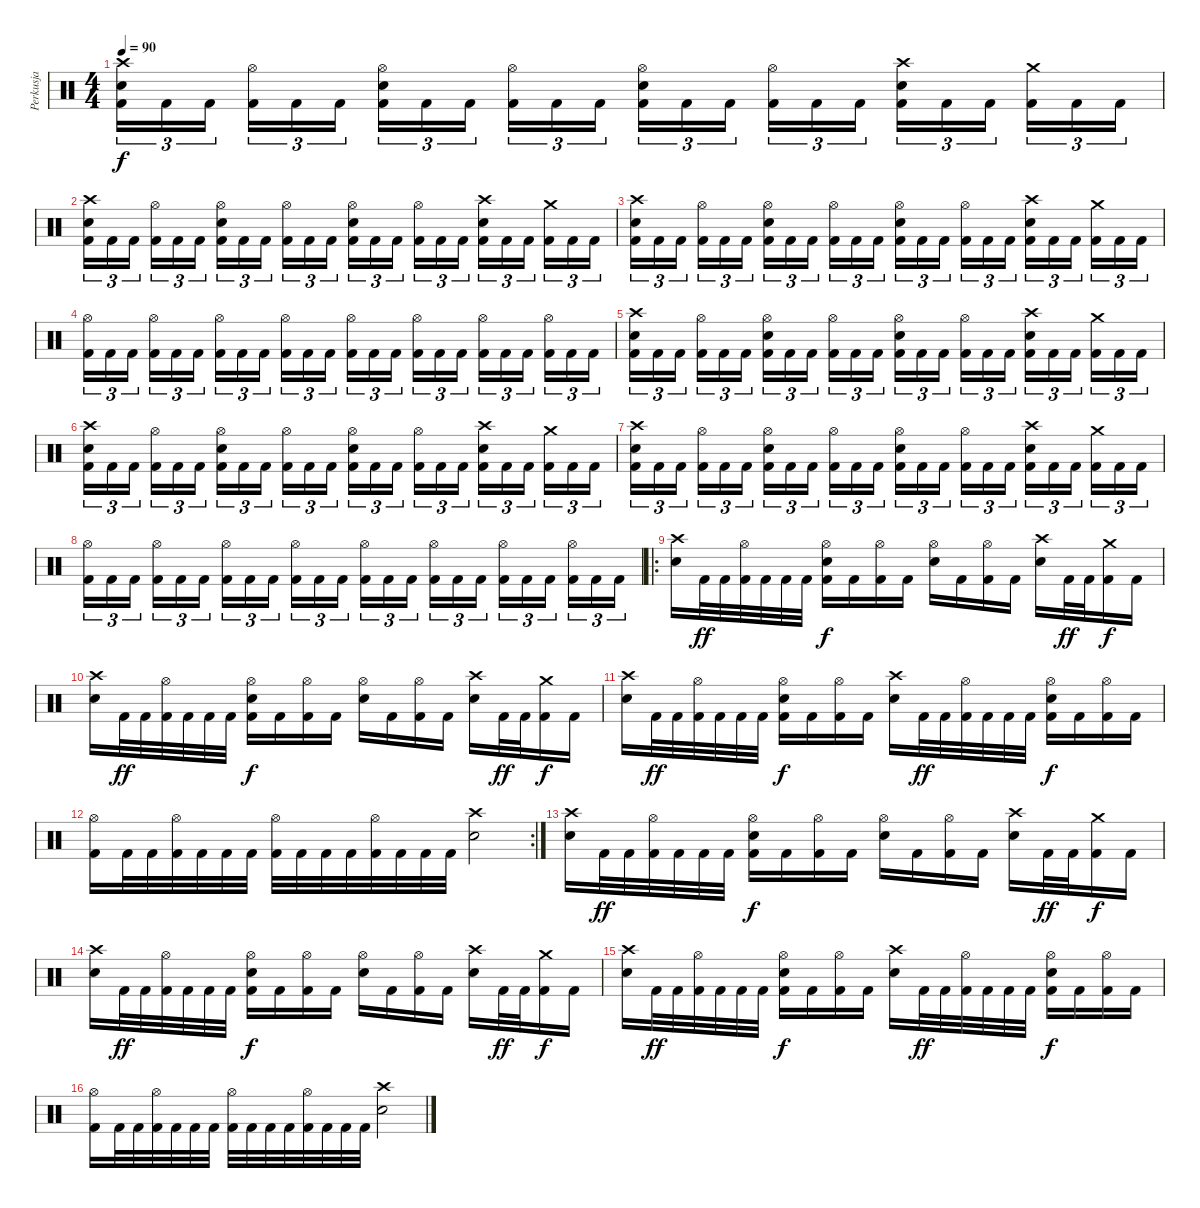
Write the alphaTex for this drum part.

\track ("Perkusja" "Perkusja") {instrument percussion}
\staff {score}
\articulation defaults
\ts (4 4)
\tempo 90
\clef neutral
\ks c
("Kick (hit) 2" "Electric Snare (hit)" "Crash high (hit)").16{tu (3 2) dy f} "Kick (hit) 2".16{tu (3 2)} "Kick (hit) 2".16{tu (3 2)} ("Kick (hit) 2" "Hi-Hat (open)").16{tu (3 2)} "Kick (hit) 2".16{tu (3 2)} "Kick (hit) 2".16{tu (3 2)} ("Kick (hit) 2" "Electric Snare (hit)" "Hi-Hat (open)").16{tu (3 2)} "Kick (hit) 2".16{tu (3 2)} "Kick (hit) 2".16{tu (3 2)} ("Kick (hit) 2" "Hi-Hat (open)").16{tu (3 2)} "Kick (hit) 2".16{tu (3 2)} "Kick (hit) 2".16{tu (3 2)} ("Kick (hit) 2" "Electric Snare (hit)" "Hi-Hat (open)").16{tu (3 2)} "Kick (hit) 2".16{tu (3 2)} "Kick (hit) 2".16{tu (3 2)} ("Kick (hit) 2" "Hi-Hat (open)").16{tu (3 2)} "Kick (hit) 2".16{tu (3 2)} "Kick (hit) 2".16{tu (3 2)} ("Kick (hit) 2" "Electric Snare (hit)" "Crash high (hit)").16{tu (3 2)} "Kick (hit) 2".16{tu (3 2)} "Kick (hit) 2".16{tu (3 2)} ("Kick (hit) 2" "Crash medium (hit)").16{tu (3 2)} "Kick (hit) 2".16{tu (3 2)} "Kick (hit) 2".16{tu (3 2)} |
("Kick (hit) 2" "Electric Snare (hit)" "Crash high (hit)").16{tu (3 2)} "Kick (hit) 2".16{tu (3 2)} "Kick (hit) 2".16{tu (3 2)} ("Kick (hit) 2" "Hi-Hat (open)").16{tu (3 2)} "Kick (hit) 2".16{tu (3 2)} "Kick (hit) 2".16{tu (3 2)} ("Kick (hit) 2" "Electric Snare (hit)" "Hi-Hat (open)").16{tu (3 2)} "Kick (hit) 2".16{tu (3 2)} "Kick (hit) 2".16{tu (3 2)} ("Kick (hit) 2" "Hi-Hat (open)").16{tu (3 2)} "Kick (hit) 2".16{tu (3 2)} "Kick (hit) 2".16{tu (3 2)} ("Kick (hit) 2" "Electric Snare (hit)" "Hi-Hat (open)").16{tu (3 2)} "Kick (hit) 2".16{tu (3 2)} "Kick (hit) 2".16{tu (3 2)} ("Kick (hit) 2" "Hi-Hat (open)").16{tu (3 2)} "Kick (hit) 2".16{tu (3 2)} "Kick (hit) 2".16{tu (3 2)} ("Kick (hit) 2" "Electric Snare (hit)" "Crash high (hit)").16{tu (3 2)} "Kick (hit) 2".16{tu (3 2)} "Kick (hit) 2".16{tu (3 2)} ("Kick (hit) 2" "Crash medium (hit)").16{tu (3 2)} "Kick (hit) 2".16{tu (3 2)} "Kick (hit) 2".16{tu (3 2)} |
("Kick (hit) 2" "Electric Snare (hit)" "Crash high (hit)").16{tu (3 2)} "Kick (hit) 2".16{tu (3 2)} "Kick (hit) 2".16{tu (3 2)} ("Kick (hit) 2" "Hi-Hat (open)").16{tu (3 2)} "Kick (hit) 2".16{tu (3 2)} "Kick (hit) 2".16{tu (3 2)} ("Kick (hit) 2" "Electric Snare (hit)" "Hi-Hat (open)").16{tu (3 2)} "Kick (hit) 2".16{tu (3 2)} "Kick (hit) 2".16{tu (3 2)} ("Kick (hit) 2" "Hi-Hat (open)").16{tu (3 2)} "Kick (hit) 2".16{tu (3 2)} "Kick (hit) 2".16{tu (3 2)} ("Kick (hit) 2" "Electric Snare (hit)" "Hi-Hat (open)").16{tu (3 2)} "Kick (hit) 2".16{tu (3 2)} "Kick (hit) 2".16{tu (3 2)} ("Kick (hit) 2" "Hi-Hat (open)").16{tu (3 2)} "Kick (hit) 2".16{tu (3 2)} "Kick (hit) 2".16{tu (3 2)} ("Kick (hit) 2" "Electric Snare (hit)" "Crash high (hit)").16{tu (3 2)} "Kick (hit) 2".16{tu (3 2)} "Kick (hit) 2".16{tu (3 2)} ("Kick (hit) 2" "Crash medium (hit)").16{tu (3 2)} "Kick (hit) 2".16{tu (3 2)} "Kick (hit) 2".16{tu (3 2)} |
("Kick (hit) 2" "Hi-Hat (open)").16{tu (3 2)} "Kick (hit) 2".16{tu (3 2)} "Kick (hit) 2".16{tu (3 2)} ("Kick (hit) 2" "Hi-Hat (open)").16{tu (3 2)} "Kick (hit) 2".16{tu (3 2)} "Kick (hit) 2".16{tu (3 2)} ("Kick (hit) 2" "Hi-Hat (open)").16{tu (3 2)} "Kick (hit) 2".16{tu (3 2)} "Kick (hit) 2".16{tu (3 2)} ("Kick (hit) 2" "Hi-Hat (open)").16{tu (3 2)} "Kick (hit) 2".16{tu (3 2)} "Kick (hit) 2".16{tu (3 2)} ("Kick (hit) 2" "Hi-Hat (open)").16{tu (3 2)} "Kick (hit) 2".16{tu (3 2)} "Kick (hit) 2".16{tu (3 2)} ("Kick (hit) 2" "Hi-Hat (open)").16{tu (3 2)} "Kick (hit) 2".16{tu (3 2)} "Kick (hit) 2".16{tu (3 2)} ("Kick (hit) 2" "Hi-Hat (open)").16{tu (3 2)} "Kick (hit) 2".16{tu (3 2)} "Kick (hit) 2".16{tu (3 2)} ("Kick (hit) 2" "Hi-Hat (open)").16{tu (3 2)} "Kick (hit) 2".16{tu (3 2)} "Kick (hit) 2".16{tu (3 2)} |
("Kick (hit) 2" "Electric Snare (hit)" "Crash high (hit)").16{tu (3 2)} "Kick (hit) 2".16{tu (3 2)} "Kick (hit) 2".16{tu (3 2)} ("Kick (hit) 2" "Hi-Hat (open)").16{tu (3 2)} "Kick (hit) 2".16{tu (3 2)} "Kick (hit) 2".16{tu (3 2)} ("Kick (hit) 2" "Electric Snare (hit)" "Hi-Hat (open)").16{tu (3 2)} "Kick (hit) 2".16{tu (3 2)} "Kick (hit) 2".16{tu (3 2)} ("Kick (hit) 2" "Hi-Hat (open)").16{tu (3 2)} "Kick (hit) 2".16{tu (3 2)} "Kick (hit) 2".16{tu (3 2)} ("Kick (hit) 2" "Electric Snare (hit)" "Hi-Hat (open)").16{tu (3 2)} "Kick (hit) 2".16{tu (3 2)} "Kick (hit) 2".16{tu (3 2)} ("Kick (hit) 2" "Hi-Hat (open)").16{tu (3 2)} "Kick (hit) 2".16{tu (3 2)} "Kick (hit) 2".16{tu (3 2)} ("Kick (hit) 2" "Electric Snare (hit)" "Crash high (hit)").16{tu (3 2)} "Kick (hit) 2".16{tu (3 2)} "Kick (hit) 2".16{tu (3 2)} ("Kick (hit) 2" "Crash medium (hit)").16{tu (3 2)} "Kick (hit) 2".16{tu (3 2)} "Kick (hit) 2".16{tu (3 2)} |
("Kick (hit) 2" "Electric Snare (hit)" "Crash high (hit)").16{tu (3 2)} "Kick (hit) 2".16{tu (3 2)} "Kick (hit) 2".16{tu (3 2)} ("Kick (hit) 2" "Hi-Hat (open)").16{tu (3 2)} "Kick (hit) 2".16{tu (3 2)} "Kick (hit) 2".16{tu (3 2)} ("Kick (hit) 2" "Electric Snare (hit)" "Hi-Hat (open)").16{tu (3 2)} "Kick (hit) 2".16{tu (3 2)} "Kick (hit) 2".16{tu (3 2)} ("Kick (hit) 2" "Hi-Hat (open)").16{tu (3 2)} "Kick (hit) 2".16{tu (3 2)} "Kick (hit) 2".16{tu (3 2)} ("Kick (hit) 2" "Electric Snare (hit)" "Hi-Hat (open)").16{tu (3 2)} "Kick (hit) 2".16{tu (3 2)} "Kick (hit) 2".16{tu (3 2)} ("Kick (hit) 2" "Hi-Hat (open)").16{tu (3 2)} "Kick (hit) 2".16{tu (3 2)} "Kick (hit) 2".16{tu (3 2)} ("Kick (hit) 2" "Electric Snare (hit)" "Crash high (hit)").16{tu (3 2)} "Kick (hit) 2".16{tu (3 2)} "Kick (hit) 2".16{tu (3 2)} ("Kick (hit) 2" "Crash medium (hit)").16{tu (3 2)} "Kick (hit) 2".16{tu (3 2)} "Kick (hit) 2".16{tu (3 2)} |
("Kick (hit) 2" "Electric Snare (hit)" "Crash high (hit)").16{tu (3 2)} "Kick (hit) 2".16{tu (3 2)} "Kick (hit) 2".16{tu (3 2)} ("Kick (hit) 2" "Hi-Hat (open)").16{tu (3 2)} "Kick (hit) 2".16{tu (3 2)} "Kick (hit) 2".16{tu (3 2)} ("Kick (hit) 2" "Electric Snare (hit)" "Hi-Hat (open)").16{tu (3 2)} "Kick (hit) 2".16{tu (3 2)} "Kick (hit) 2".16{tu (3 2)} ("Kick (hit) 2" "Hi-Hat (open)").16{tu (3 2)} "Kick (hit) 2".16{tu (3 2)} "Kick (hit) 2".16{tu (3 2)} ("Kick (hit) 2" "Electric Snare (hit)" "Hi-Hat (open)").16{tu (3 2)} "Kick (hit) 2".16{tu (3 2)} "Kick (hit) 2".16{tu (3 2)} ("Kick (hit) 2" "Hi-Hat (open)").16{tu (3 2)} "Kick (hit) 2".16{tu (3 2)} "Kick (hit) 2".16{tu (3 2)} ("Kick (hit) 2" "Electric Snare (hit)" "Crash high (hit)").16{tu (3 2)} "Kick (hit) 2".16{tu (3 2)} "Kick (hit) 2".16{tu (3 2)} ("Kick (hit) 2" "Crash medium (hit)").16{tu (3 2)} "Kick (hit) 2".16{tu (3 2)} "Kick (hit) 2".16{tu (3 2)} |
("Kick (hit) 2" "Hi-Hat (open)").16{tu (3 2)} "Kick (hit) 2".16{tu (3 2)} "Kick (hit) 2".16{tu (3 2)} ("Kick (hit) 2" "Hi-Hat (open)").16{tu (3 2)} "Kick (hit) 2".16{tu (3 2)} "Kick (hit) 2".16{tu (3 2)} ("Kick (hit) 2" "Hi-Hat (open)").16{tu (3 2)} "Kick (hit) 2".16{tu (3 2)} "Kick (hit) 2".16{tu (3 2)} ("Kick (hit) 2" "Hi-Hat (open)").16{tu (3 2)} "Kick (hit) 2".16{tu (3 2)} "Kick (hit) 2".16{tu (3 2)} ("Kick (hit) 2" "Hi-Hat (open)").16{tu (3 2)} "Kick (hit) 2".16{tu (3 2)} "Kick (hit) 2".16{tu (3 2)} ("Kick (hit) 2" "Hi-Hat (open)").16{tu (3 2)} "Kick (hit) 2".16{tu (3 2)} "Kick (hit) 2".16{tu (3 2)} ("Kick (hit) 2" "Hi-Hat (open)").16{tu (3 2)} "Kick (hit) 2".16{tu (3 2)} "Kick (hit) 2".16{tu (3 2)} ("Kick (hit) 2" "Hi-Hat (open)").16{tu (3 2)} "Kick (hit) 2".16{tu (3 2)} "Kick (hit) 2".16{tu (3 2)} |
\ro
("Crash high (hit)" "Electric Snare (hit)").16 "Kick (hit) 2".32{dy ff} "Kick (hit) 2".32 ("Hi-Hat (open)" "Kick (hit) 2").32 "Kick (hit) 2".32 "Kick (hit) 2".32 "Kick (hit) 2".32 ("Hi-Hat (open)" "Electric Snare (hit)" "Kick (hit) 2").16{dy f} "Kick (hit) 2".16 ("Hi-Hat (open)" "Kick (hit) 2").16 "Kick (hit) 2".16 ("Hi-Hat (open)" "Electric Snare (hit)").16 "Kick (hit) 2".16 ("Hi-Hat (open)" "Kick (hit) 2").16 "Kick (hit) 2".16 ("Crash high (hit)" "Electric Snare (hit)").16 "Kick (hit) 2".32{dy ff} "Kick (hit) 2".32 ("Crash medium (hit)" "Kick (hit) 2").16{dy f} "Kick (hit) 2".16 |
("Crash high (hit)" "Electric Snare (hit)").16 "Kick (hit) 2".32{dy ff} "Kick (hit) 2".32 ("Hi-Hat (open)" "Kick (hit) 2").32 "Kick (hit) 2".32 "Kick (hit) 2".32 "Kick (hit) 2".32 ("Hi-Hat (open)" "Electric Snare (hit)" "Kick (hit) 2").16{dy f} "Kick (hit) 2".16 ("Hi-Hat (open)" "Kick (hit) 2").16 "Kick (hit) 2".16 ("Hi-Hat (open)" "Electric Snare (hit)").16 "Kick (hit) 2".16 ("Hi-Hat (open)" "Kick (hit) 2").16 "Kick (hit) 2".16 ("Crash high (hit)" "Electric Snare (hit)").16 "Kick (hit) 2".32{dy ff} "Kick (hit) 2".32 ("Crash medium (hit)" "Kick (hit) 2").16{dy f} "Kick (hit) 2".16 |
("Crash high (hit)" "Electric Snare (hit)").16 "Kick (hit) 2".32{dy ff} "Kick (hit) 2".32 ("Hi-Hat (open)" "Kick (hit) 2").32 "Kick (hit) 2".32 "Kick (hit) 2".32 "Kick (hit) 2".32 ("Hi-Hat (open)" "Electric Snare (hit)" "Kick (hit) 2").16{dy f} "Kick (hit) 2".16 ("Hi-Hat (open)" "Kick (hit) 2").16 "Kick (hit) 2".16 ("Crash high (hit)" "Electric Snare (hit)").16 "Kick (hit) 2".32{dy ff} "Kick (hit) 2".32 ("Hi-Hat (open)" "Kick (hit) 2").32 "Kick (hit) 2".32 "Kick (hit) 2".32 "Kick (hit) 2".32 ("Hi-Hat (open)" "Electric Snare (hit)" "Kick (hit) 2").16{dy f} "Kick (hit) 2".16 ("Hi-Hat (open)" "Kick (hit) 2").16 "Kick (hit) 2".16 |
\rc 2
("Hi-Hat (open)" "Kick (hit) 2").16 "Kick (hit) 2".32 "Kick (hit) 2".32 ("Hi-Hat (open)" "Kick (hit) 2").32 "Kick (hit) 2".32 "Kick (hit) 2".32 "Kick (hit) 2".32 ("Hi-Hat (open)" "Kick (hit) 2").32 "Kick (hit) 2".32 "Kick (hit) 2".32 "Kick (hit) 2".32 ("Hi-Hat (open)" "Kick (hit) 2").32 "Kick (hit) 2".32 "Kick (hit) 2".32 "Kick (hit) 2".32 ("Crash high (hit)" "Electric Snare (hit)").2 |
("Crash high (hit)" "Electric Snare (hit)").16 "Kick (hit) 2".32{dy ff} "Kick (hit) 2".32 ("Hi-Hat (open)" "Kick (hit) 2").32 "Kick (hit) 2".32 "Kick (hit) 2".32 "Kick (hit) 2".32 ("Hi-Hat (open)" "Electric Snare (hit)" "Kick (hit) 2").16{dy f} "Kick (hit) 2".16 ("Hi-Hat (open)" "Kick (hit) 2").16 "Kick (hit) 2".16 ("Hi-Hat (open)" "Electric Snare (hit)").16 "Kick (hit) 2".16 ("Hi-Hat (open)" "Kick (hit) 2").16 "Kick (hit) 2".16 ("Crash high (hit)" "Electric Snare (hit)").16 "Kick (hit) 2".32{dy ff} "Kick (hit) 2".32 ("Crash medium (hit)" "Kick (hit) 2").16{dy f} "Kick (hit) 2".16 |
("Crash high (hit)" "Electric Snare (hit)").16 "Kick (hit) 2".32{dy ff} "Kick (hit) 2".32 ("Hi-Hat (open)" "Kick (hit) 2").32 "Kick (hit) 2".32 "Kick (hit) 2".32 "Kick (hit) 2".32 ("Hi-Hat (open)" "Electric Snare (hit)" "Kick (hit) 2").16{dy f} "Kick (hit) 2".16 ("Hi-Hat (open)" "Kick (hit) 2").16 "Kick (hit) 2".16 ("Hi-Hat (open)" "Electric Snare (hit)").16 "Kick (hit) 2".16 ("Hi-Hat (open)" "Kick (hit) 2").16 "Kick (hit) 2".16 ("Crash high (hit)" "Electric Snare (hit)").16 "Kick (hit) 2".32{dy ff} "Kick (hit) 2".32 ("Crash medium (hit)" "Kick (hit) 2").16{dy f} "Kick (hit) 2".16 |
("Crash high (hit)" "Electric Snare (hit)").16 "Kick (hit) 2".32{dy ff} "Kick (hit) 2".32 ("Hi-Hat (open)" "Kick (hit) 2").32 "Kick (hit) 2".32 "Kick (hit) 2".32 "Kick (hit) 2".32 ("Hi-Hat (open)" "Electric Snare (hit)" "Kick (hit) 2").16{dy f} "Kick (hit) 2".16 ("Hi-Hat (open)" "Kick (hit) 2").16 "Kick (hit) 2".16 ("Crash high (hit)" "Electric Snare (hit)").16 "Kick (hit) 2".32{dy ff} "Kick (hit) 2".32 ("Hi-Hat (open)" "Kick (hit) 2").32 "Kick (hit) 2".32 "Kick (hit) 2".32 "Kick (hit) 2".32 ("Hi-Hat (open)" "Electric Snare (hit)" "Kick (hit) 2").16{dy f} "Kick (hit) 2".16 ("Hi-Hat (open)" "Kick (hit) 2").16 "Kick (hit) 2".16 |
("Hi-Hat (open)" "Kick (hit) 2").16 "Kick (hit) 2".32 "Kick (hit) 2".32 ("Hi-Hat (open)" "Kick (hit) 2").32 "Kick (hit) 2".32 "Kick (hit) 2".32 "Kick (hit) 2".32 ("Hi-Hat (open)" "Kick (hit) 2").32 "Kick (hit) 2".32 "Kick (hit) 2".32 "Kick (hit) 2".32 ("Hi-Hat (open)" "Kick (hit) 2").32 "Kick (hit) 2".32 "Kick (hit) 2".32 "Kick (hit) 2".32 ("Crash high (hit)" "Electric Snare (hit)").2
